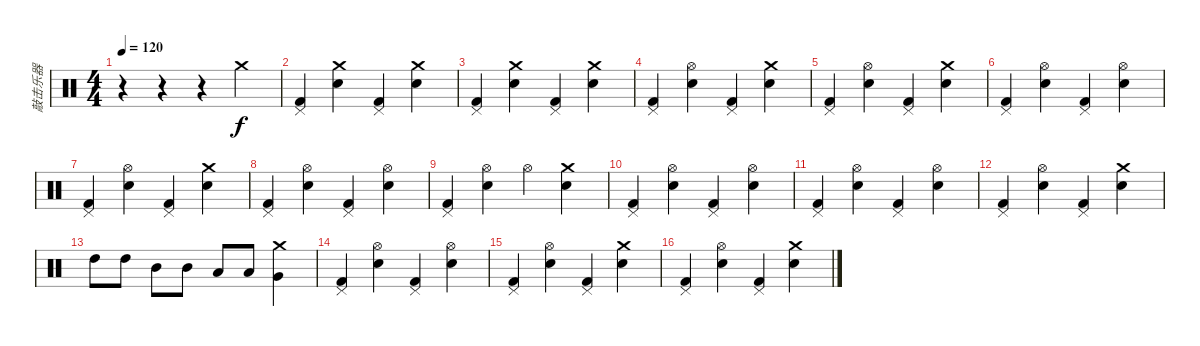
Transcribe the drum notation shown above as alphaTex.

\track ("敲击乐器" "敲击乐器") {instrument percussion}
\staff {score}
\articulation defaults
\ts (4 4)
\tempo 120
\clef neutral
\ks c
r.4{dy f} r.4 r.4 "Crash medium (hit)".4 |
("Pedal Hi-Hat (hit)" "Kick (hit) 2").4 ("Crash medium (hit)" "Electric Snare (hit)").4 ("Pedal Hi-Hat (hit)" "Kick (hit) 2").4 ("Crash medium (hit)" "Electric Snare (hit)").4 |
("Pedal Hi-Hat (hit)" "Kick (hit) 2").4 ("Crash medium (hit)" "Electric Snare (hit)").4 ("Pedal Hi-Hat (hit)" "Kick (hit) 2").4 ("Crash medium (hit)" "Electric Snare (hit)").4 |
("Pedal Hi-Hat (hit)" "Kick (hit) 2").4 ("Hi-Hat (open)" "Electric Snare (hit)").4 ("Pedal Hi-Hat (hit)" "Kick (hit) 2").4 ("Crash medium (hit)" "Electric Snare (hit)").4 |
("Pedal Hi-Hat (hit)" "Kick (hit) 2").4 ("Hi-Hat (open)" "Electric Snare (hit)").4 ("Pedal Hi-Hat (hit)" "Kick (hit) 2").4 ("Crash medium (hit)" "Electric Snare (hit)").4 |
("Pedal Hi-Hat (hit)" "Kick (hit) 2").4 ("Hi-Hat (open)" "Electric Snare (hit)").4 ("Pedal Hi-Hat (hit)" "Kick (hit) 2").4 ("Hi-Hat (open)" "Electric Snare (hit)").4 |
("Pedal Hi-Hat (hit)" "Kick (hit) 2").4 ("Hi-Hat (open)" "Electric Snare (hit)").4 ("Pedal Hi-Hat (hit)" "Kick (hit) 2").4 ("Crash medium (hit)" "Electric Snare (hit)").4 |
("Pedal Hi-Hat (hit)" "Kick (hit) 2").4 ("Hi-Hat (open)" "Electric Snare (hit)").4 ("Pedal Hi-Hat (hit)" "Kick (hit) 2").4 ("Hi-Hat (open)" "Electric Snare (hit)").4 |
("Pedal Hi-Hat (hit)" "Kick (hit) 2").4 ("Hi-Hat (open)" "Electric Snare (hit)").4 "Hi-Hat (open)".4 ("Crash medium (hit)" "Electric Snare (hit)").4 |
("Pedal Hi-Hat (hit)" "Kick (hit) 2").4 ("Hi-Hat (open)" "Electric Snare (hit)").4 ("Pedal Hi-Hat (hit)" "Kick (hit) 2").4 ("Hi-Hat (open)" "Electric Snare (hit)").4 |
("Pedal Hi-Hat (hit)" "Kick (hit) 2").4 ("Hi-Hat (open)" "Electric Snare (hit)").4 ("Pedal Hi-Hat (hit)" "Kick (hit) 2").4 ("Hi-Hat (open)" "Electric Snare (hit)").4 |
("Pedal Hi-Hat (hit)" "Kick (hit) 2").4 ("Hi-Hat (open)" "Electric Snare (hit)").4 ("Pedal Hi-Hat (hit)" "Kick (hit) 2").4 ("Crash medium (hit)" "Electric Snare (hit)").4 |
"High Tom (hit)".8 "High Tom (hit)".8 "Mid Tom (hit)".8 "Mid Tom (hit)".8 "Low Tom (hit)".8 "Low Tom (hit)".8 ("Crash medium (hit)" "Very Low Tom (hit)").4 |
("Pedal Hi-Hat (hit)" "Kick (hit) 2").4 ("Hi-Hat (open)" "Electric Snare (hit)").4 ("Pedal Hi-Hat (hit)" "Kick (hit) 2").4 ("Hi-Hat (open)" "Electric Snare (hit)").4 |
("Pedal Hi-Hat (hit)" "Kick (hit) 2").4 ("Hi-Hat (open)" "Electric Snare (hit)").4 ("Pedal Hi-Hat (hit)" "Kick (hit) 2").4 ("Crash medium (hit)" "Electric Snare (hit)").4 |
("Pedal Hi-Hat (hit)" "Kick (hit) 2").4 ("Hi-Hat (open)" "Electric Snare (hit)").4 ("Pedal Hi-Hat (hit)" "Kick (hit) 2").4 ("Crash medium (hit)" "Electric Snare (hit)").4
